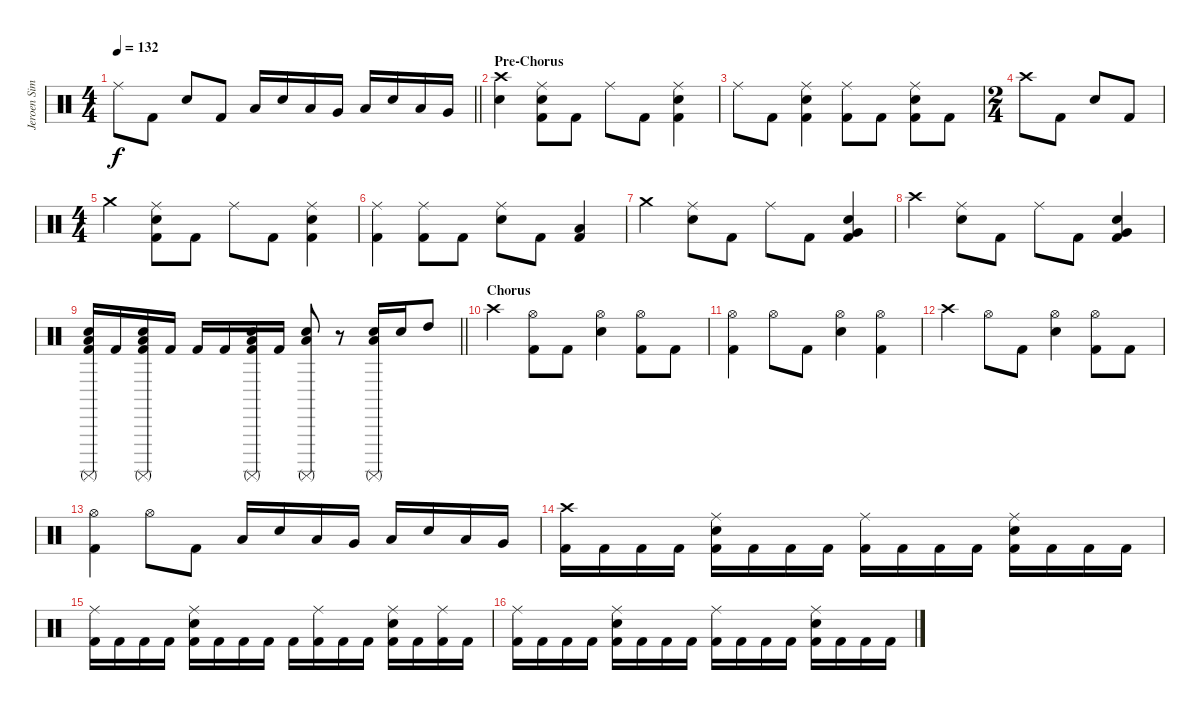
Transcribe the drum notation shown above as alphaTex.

\track ("Jeroen Simons" "Jeroen Sim") {instrument percussion}
\staff {score}
\articulation defaults
\ts (4 4)
\tempo 132
\clef neutral
\barLineRight lightlight
\ks c "Ride (middle)".8{dy f} "Kick (hit) 2".8 "Electric Snare (hit)".8 "Kick (hit) 2".8 "Low Tom (hit)".16 "Electric Snare (hit)".16 "Low Tom (hit)".16 "Very Low Tom (hit)".16 "Low Tom (hit)".16 "Electric Snare (hit)".16 "Low Tom (hit)".16 "Very Low Tom (hit)".16
|
\section ("" "Pre-Chorus")
("Crash high (hit)" "Electric Snare (hit)").4 ("Ride (middle)" "Electric Snare (hit)" "Kick (hit) 2").8 "Kick (hit) 2".8 "Ride (middle)".8 "Kick (hit) 2".8 ("Ride (middle)" "Electric Snare (hit)" "Kick (hit) 2").4 |
"Ride (middle)".8 "Kick (hit) 2".8 ("Ride (middle)" "Electric Snare (hit)" "Kick (hit) 2").4 ("Ride (middle)" "Kick (hit) 2").8 "Kick (hit) 2".8 ("Ride (middle)" "Electric Snare (hit)" "Kick (hit) 2").8 "Kick (hit) 2".8 |
\ts (2 4)
"Crash high (hit)".8 "Kick (hit) 2".8 "Electric Snare (hit)".8 "Kick (hit) 2".8 |
\ts (4 4)
"Crash medium (hit)".4 ("Ride (middle)" "Electric Snare (hit)" "Kick (hit) 2").8 "Kick (hit) 2".8 "Ride (middle)".8 "Kick (hit) 2".8 ("Ride (middle)" "Electric Snare (hit)" "Kick (hit) 2").4 |
("Ride (middle)" "Kick (hit) 2").4 ("Ride (middle)" "Kick (hit) 2").8 "Kick (hit) 2".8 ("Ride (middle)" "Electric Snare (hit)").8 "Kick (hit) 2".8 ("Low Tom (hit)" "Kick (hit) 2").4 |
"Crash medium (hit)".4 ("Ride (middle)" "Electric Snare (hit)").8 "Kick (hit) 2".8 "Ride (middle)".8 "Kick (hit) 2".8 ("Very Low Tom (hit)" "Electric Snare (hit)" "Kick (hit) 2").4 |
"Crash high (hit)".4 ("Ride (middle)" "Electric Snare (hit)").8 "Kick (hit) 2".8 "Ride (middle)".8 "Kick (hit) 2".8 ("Very Low Tom (hit)" "Electric Snare (hit)" "Kick (hit) 2").4 |
\barLineRight lightlight
("Surdo (mute)" "Low Tom (hit)" "Electric Snare (hit)" "Kick (hit) 2").16 "Kick (hit) 2".16 ("Surdo (mute)" "Low Tom (hit)" "Electric Snare (hit)" "Kick (hit) 2").16 "Kick (hit) 2".16 "Kick (hit) 2".16 "Kick (hit) 2".16 ("Surdo (mute)" "Low Tom (hit)" "Electric Snare (hit)" "Kick (hit) 2").16 "Kick (hit) 2".16 ("Surdo (mute)" "Low Tom (hit)" "Electric Snare (hit)").8 r.8 ("Surdo (mute)" "Low Tom (hit)" "Electric Snare (hit)").16 "Electric Snare (hit)".16 "High Tom (hit)".8 |
\section ("" "Chorus")
"Crash high (hit)".4 ("Hi-Hat (open)" "Kick (hit) 2").8 "Kick (hit) 2".8 ("Hi-Hat (open)" "Electric Snare (hit)").4 ("Hi-Hat (open)" "Kick (hit) 2").8 "Kick (hit) 2".8 |
("Hi-Hat (open)" "Kick (hit) 2").4 "Hi-Hat (open)".8 "Kick (hit) 2".8 ("Hi-Hat (open)" "Electric Snare (hit)").4 ("Hi-Hat (open)" "Kick (hit) 2").4 |
"Crash high (hit)".4 "Hi-Hat (open)".8 "Kick (hit) 2".8 ("Hi-Hat (open)" "Electric Snare (hit)").4 ("Hi-Hat (open)" "Kick (hit) 2").8 "Kick (hit) 2".8 |
("Hi-Hat (open)" "Kick (hit) 2").4 "Hi-Hat (open)".8 "Kick (hit) 2".8 "Low Tom (hit)".16 "Electric Snare (hit)".16 "Low Tom (hit)".16 "Very Low Tom (hit)".16 "Low Tom (hit)".16 "Electric Snare (hit)".16 "Low Tom (hit)".16 "Very Low Tom (hit)".16 |
("Crash high (hit)" "Kick (hit) 2").16 "Kick (hit) 2".16 "Kick (hit) 2".16 "Kick (hit) 2".16 ("Ride (middle)" "Electric Snare (hit)" "Kick (hit) 2").16 "Kick (hit) 2".16 "Kick (hit) 2".16 "Kick (hit) 2".16 ("Ride (middle)" "Kick (hit) 2").16 "Kick (hit) 2".16 "Kick (hit) 2".16 "Kick (hit) 2".16 ("Ride (middle)" "Electric Snare (hit)" "Kick (hit) 2").16 "Kick (hit) 2".16 "Kick (hit) 2".16 "Kick (hit) 2".16 |
("Ride (middle)" "Kick (hit) 2").16 "Kick (hit) 2".16 "Kick (hit) 2".16 "Kick (hit) 2".16 ("Ride (middle)" "Electric Snare (hit)" "Kick (hit) 2").16 "Kick (hit) 2".16 "Kick (hit) 2".16 "Kick (hit) 2".16 "Kick (hit) 2".16 ("Ride (middle)" "Kick (hit) 2").16 "Kick (hit) 2".16 "Kick (hit) 2".16 ("Ride (middle)" "Electric Snare (hit)" "Kick (hit) 2").16 "Kick (hit) 2".16 ("Ride (middle)" "Kick (hit) 2").16 "Kick (hit) 2".16 |
("Ride (middle)" "Kick (hit) 2").16 "Kick (hit) 2".16 "Kick (hit) 2".16 "Kick (hit) 2".16 ("Ride (middle)" "Electric Snare (hit)" "Kick (hit) 2").16 "Kick (hit) 2".16 "Kick (hit) 2".16 "Kick (hit) 2".16 ("Ride (middle)" "Kick (hit) 2").16 "Kick (hit) 2".16 "Kick (hit) 2".16 "Kick (hit) 2".16 ("Ride (middle)" "Electric Snare (hit)" "Kick (hit) 2").16 "Kick (hit) 2".16 "Kick (hit) 2".16 "Kick (hit) 2".16
